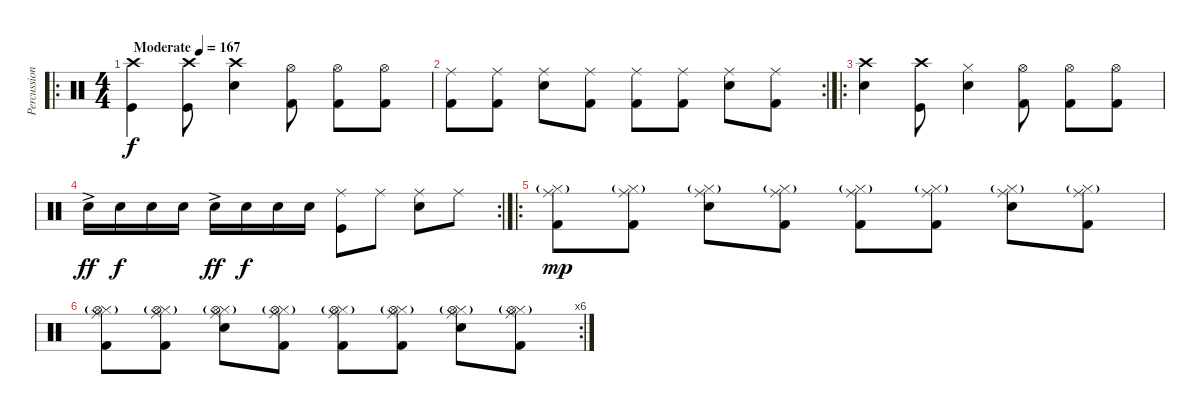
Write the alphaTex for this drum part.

\track ("Percussion" "Percussion") {instrument percussion}
\staff {score}
\articulation defaults
\ro
\ts (4 4)
\tempo (167 "Moderate")
\clef neutral
\ks c
("Crash high (hit)" "Kick (hit)").4{dy f} ("Crash high (hit)" "Kick (hit)").8 ("Crash high (hit)" "Electric Snare (hit)").4 ("Hi-Hat (open)" "Kick (hit) 2").8 ("Hi-Hat (open)" "Kick (hit) 2").8 ("Hi-Hat (open)" "Kick (hit) 2").8 |
\rc 2
("Ride (middle)" "Kick (hit) 2").8 ("Ride (middle)" "Kick (hit) 2").8 ("Ride (middle)" "Electric Snare (hit)").8 ("Ride (middle)" "Kick (hit) 2").8 ("Ride (middle)" "Kick (hit) 2").8 ("Ride (middle)" "Kick (hit) 2").8 ("Ride (middle)" "Electric Snare (hit)").8 ("Ride (middle)" "Kick (hit) 2").8 |
\ro
("Crash high (hit)" "Electric Snare (hit)").4 ("Crash high (hit)" "Kick (hit)").8 ("Hi-Hat (closed)" "Electric Snare (hit)").4 ("Hi-Hat (open)" "Kick (hit) 2").8 ("Hi-Hat (open)" "Kick (hit) 2").8 ("Hi-Hat (open)" "Kick (hit) 2").8 |
\rc 2 "Electric Snare (hit)"{ac}.16{dy ff} "Electric Snare (hit)".16{dy f} "Electric Snare (hit)".16 "Electric Snare (hit)".16 "Electric Snare (hit)"{ac}.16{dy ff} "Electric Snare (hit)".16{dy f} "Electric Snare (hit)".16 "Electric Snare (hit)".16
("Ride (middle)" "Kick (hit)").8 "Ride (middle)".8 ("Ride (middle)" "Electric Snare (hit)").8 "Ride (middle)".8 |
\ro
("Hi-Hat (closed)"{g} "Ride (middle)" "Kick (hit) 2").8{dy mp} ("Hi-Hat (closed)"{g} "Ride (middle)" "Kick (hit) 2").8 ("Hi-Hat (closed)"{g} "Ride (middle)" "Electric Snare (hit)").8 ("Hi-Hat (closed)"{g} "Ride (middle)" "Kick (hit) 2").8 ("Hi-Hat (closed)"{g} "Ride (middle)" "Kick (hit) 2").8 ("Hi-Hat (closed)"{g} "Ride (middle)" "Kick (hit) 2").8 ("Hi-Hat (closed)"{g} "Ride (middle)" "Electric Snare (hit)").8 ("Hi-Hat (closed)"{g} "Ride (middle)" "Kick (hit) 2").8 |
\rc 6
("Hi-Hat (closed)"{g} "Hi-Hat (open)"{g} "Ride (middle)" "Kick (hit) 2").8 ("Hi-Hat (closed)"{g} "Hi-Hat (open)"{g} "Ride (middle)" "Kick (hit) 2").8 ("Hi-Hat (closed)"{g} "Hi-Hat (open)"{g} "Ride (middle)" "Electric Snare (hit)").8 ("Hi-Hat (closed)"{g} "Hi-Hat (open)"{g} "Ride (middle)" "Kick (hit) 2").8 ("Hi-Hat (closed)"{g} "Hi-Hat (open)"{g} "Ride (middle)" "Kick (hit) 2").8 ("Hi-Hat (closed)"{g} "Hi-Hat (open)"{g} "Ride (middle)" "Kick (hit) 2").8 ("Hi-Hat (closed)"{g} "Hi-Hat (open)"{g} "Ride (middle)" "Electric Snare (hit)").8 ("Hi-Hat (closed)"{g} "Hi-Hat (open)"{g} "Ride (middle)" "Kick (hit) 2").8
